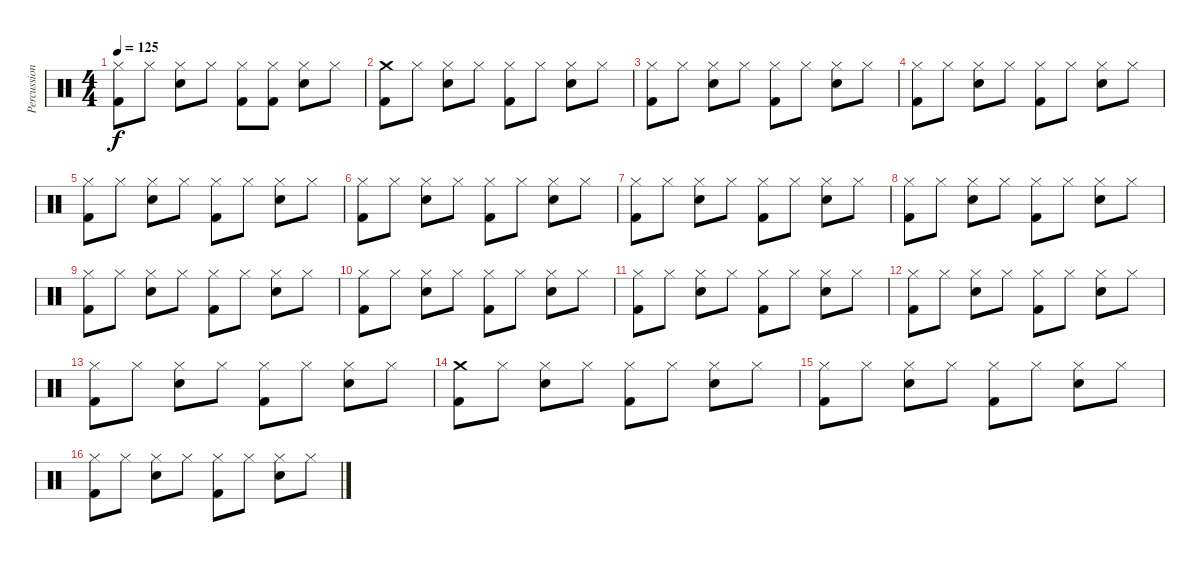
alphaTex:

\track ("Percussion" "Percussion") {instrument percussion}
\staff {score}
\articulation defaults
\ts (4 4)
\tempo 125
\clef neutral
\ks c
("Hi-Hat (closed)" "Kick (hit) 2").8{dy f} "Hi-Hat (closed)".8 ("Hi-Hat (closed)" "Snare (hit) 2").8 "Hi-Hat (closed)".8 ("Hi-Hat (closed)" "Kick (hit) 2").8 ("Hi-Hat (closed)" "Kick (hit) 2").8 ("Hi-Hat (closed)" "Snare (hit) 2").8 "Hi-Hat (closed)".8 |
("Crash medium (hit)" "Kick (hit) 2").8 "Hi-Hat (closed)".8 ("Hi-Hat (closed)" "Snare (hit) 2").8 "Hi-Hat (closed)".8 ("Hi-Hat (closed)" "Kick (hit) 2").8 "Hi-Hat (closed)".8 ("Hi-Hat (closed)" "Snare (hit) 2").8 "Hi-Hat (closed)".8 |
("Hi-Hat (closed)" "Kick (hit) 2").8 "Hi-Hat (closed)".8 ("Hi-Hat (closed)" "Snare (hit) 2").8 "Hi-Hat (closed)".8 ("Hi-Hat (closed)" "Kick (hit) 2").8 "Hi-Hat (closed)".8 ("Hi-Hat (closed)" "Snare (hit) 2").8 "Hi-Hat (closed)".8 |
("Hi-Hat (closed)" "Kick (hit) 2").8 "Hi-Hat (closed)".8 ("Hi-Hat (closed)" "Snare (hit) 2").8 "Hi-Hat (closed)".8 ("Hi-Hat (closed)" "Kick (hit) 2").8 "Hi-Hat (closed)".8 ("Hi-Hat (closed)" "Snare (hit) 2").8 "Hi-Hat (closed)".8 |
("Hi-Hat (closed)" "Kick (hit) 2").8 "Hi-Hat (closed)".8 ("Hi-Hat (closed)" "Snare (hit) 2").8 "Hi-Hat (closed)".8 ("Hi-Hat (closed)" "Kick (hit) 2").8 "Hi-Hat (closed)".8 ("Hi-Hat (closed)" "Snare (hit) 2").8 "Hi-Hat (closed)".8 |
("Hi-Hat (closed)" "Kick (hit) 2").8 "Hi-Hat (closed)".8 ("Hi-Hat (closed)" "Snare (hit) 2").8 "Hi-Hat (closed)".8 ("Hi-Hat (closed)" "Kick (hit) 2").8 "Hi-Hat (closed)".8 ("Hi-Hat (closed)" "Snare (hit) 2").8 "Hi-Hat (closed)".8 |
("Hi-Hat (closed)" "Kick (hit) 2").8 "Hi-Hat (closed)".8 ("Hi-Hat (closed)" "Snare (hit) 2").8 "Hi-Hat (closed)".8 ("Hi-Hat (closed)" "Kick (hit) 2").8 "Hi-Hat (closed)".8 ("Hi-Hat (closed)" "Snare (hit) 2").8 "Hi-Hat (closed)".8 |
("Hi-Hat (closed)" "Kick (hit) 2").8 "Hi-Hat (closed)".8 ("Hi-Hat (closed)" "Snare (hit) 2").8 "Hi-Hat (closed)".8 ("Hi-Hat (closed)" "Kick (hit) 2").8 "Hi-Hat (closed)".8 ("Hi-Hat (closed)" "Snare (hit) 2").8 "Hi-Hat (closed)".8 |
("Hi-Hat (closed)" "Kick (hit) 2").8 "Hi-Hat (closed)".8 ("Hi-Hat (closed)" "Snare (hit) 2").8 "Hi-Hat (closed)".8 ("Hi-Hat (closed)" "Kick (hit) 2").8 "Hi-Hat (closed)".8 ("Hi-Hat (closed)" "Snare (hit) 2").8 "Hi-Hat (closed)".8 |
("Hi-Hat (closed)" "Kick (hit) 2").8 "Hi-Hat (closed)".8 ("Hi-Hat (closed)" "Snare (hit) 2").8 "Hi-Hat (closed)".8 ("Hi-Hat (closed)" "Kick (hit) 2").8 "Hi-Hat (closed)".8 ("Hi-Hat (closed)" "Snare (hit) 2").8 "Hi-Hat (closed)".8 |
("Hi-Hat (closed)" "Kick (hit) 2").8 "Hi-Hat (closed)".8 ("Hi-Hat (closed)" "Snare (hit) 2").8 "Hi-Hat (closed)".8 ("Hi-Hat (closed)" "Kick (hit) 2").8 "Hi-Hat (closed)".8 ("Hi-Hat (closed)" "Snare (hit) 2").8 "Hi-Hat (closed)".8 |
("Hi-Hat (closed)" "Kick (hit) 2").8 "Hi-Hat (closed)".8 ("Hi-Hat (closed)" "Snare (hit) 2").8 "Hi-Hat (closed)".8 ("Hi-Hat (closed)" "Kick (hit) 2").8 "Hi-Hat (closed)".8 ("Hi-Hat (closed)" "Snare (hit) 2").8 "Hi-Hat (closed)".8 |
("Hi-Hat (closed)" "Kick (hit) 2").8 "Hi-Hat (closed)".8 ("Hi-Hat (closed)" "Snare (hit) 2").8 "Hi-Hat (closed)".8 ("Hi-Hat (closed)" "Kick (hit) 2").8 "Hi-Hat (closed)".8 ("Hi-Hat (closed)" "Snare (hit) 2").8 "Hi-Hat (closed)".8 |
("Crash medium (hit)" "Kick (hit) 2").8 "Hi-Hat (closed)".8 ("Hi-Hat (closed)" "Snare (hit) 2").8 "Hi-Hat (closed)".8 ("Hi-Hat (closed)" "Kick (hit) 2").8 "Hi-Hat (closed)".8 ("Hi-Hat (closed)" "Snare (hit) 2").8 "Hi-Hat (closed)".8 |
("Hi-Hat (closed)" "Kick (hit) 2").8 "Hi-Hat (closed)".8 ("Hi-Hat (closed)" "Snare (hit) 2").8 "Hi-Hat (closed)".8 ("Hi-Hat (closed)" "Kick (hit) 2").8 "Hi-Hat (closed)".8 ("Hi-Hat (closed)" "Snare (hit) 2").8 "Hi-Hat (closed)".8 |
("Hi-Hat (closed)" "Kick (hit) 2").8 "Hi-Hat (closed)".8 ("Hi-Hat (closed)" "Snare (hit) 2").8 "Hi-Hat (closed)".8 ("Hi-Hat (closed)" "Kick (hit) 2").8 "Hi-Hat (closed)".8 ("Hi-Hat (closed)" "Snare (hit) 2").8 "Hi-Hat (closed)".8
